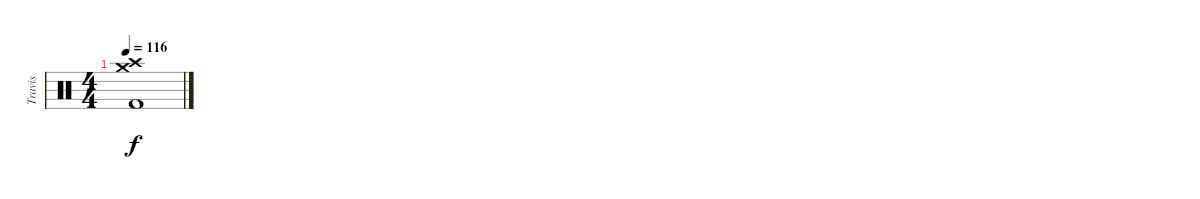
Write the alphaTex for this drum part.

\track ("Travis" "Travis") {instrument percussion}
\staff {score}
\articulation defaults
\ts (4 4)
\tempo 116
\clef neutral
\ks c
("Crash medium (hit)" "Crash high (hit)" "Kick (hit) 2").1{dy f}
